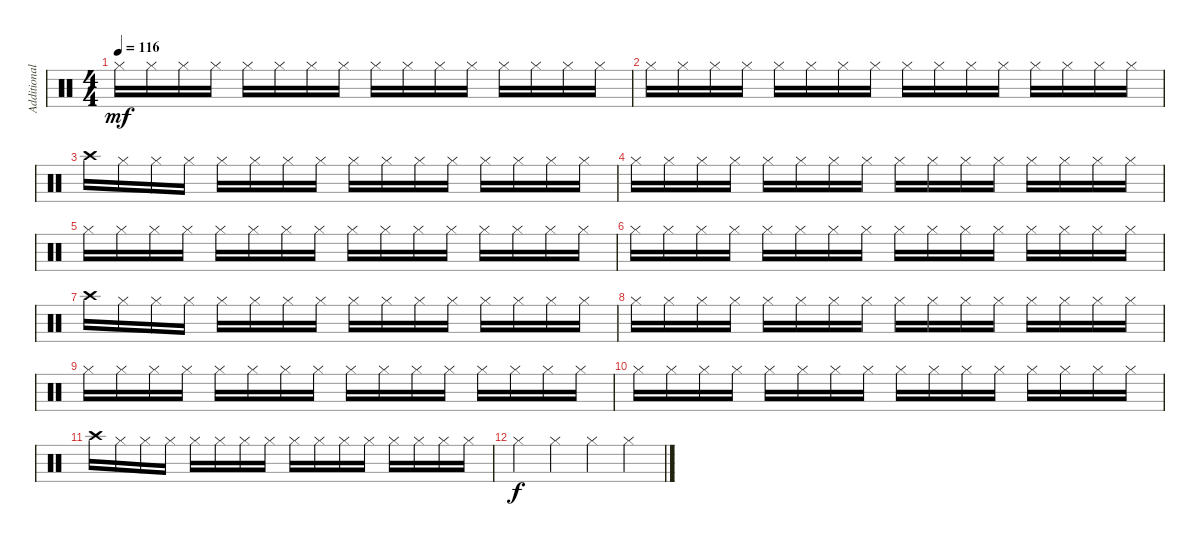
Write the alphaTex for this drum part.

\track ("Additional Drums" "Additional") {instrument percussion}
\staff {score}
\articulation defaults
\ts (4 4)
\tempo 116
\clef neutral
\ks c "Hi-Hat (closed)".16{dy mf} "Hi-Hat (closed)".16 "Hi-Hat (closed)".16 "Hi-Hat (closed)".16 "Hi-Hat (closed)".16 "Hi-Hat (closed)".16 "Hi-Hat (closed)".16 "Hi-Hat (closed)".16 "Hi-Hat (closed)".16 "Hi-Hat (closed)".16 "Hi-Hat (closed)".16 "Hi-Hat (closed)".16 "Hi-Hat (closed)".16 "Hi-Hat (closed)".16 "Hi-Hat (closed)".16 "Hi-Hat (closed)".16
|
"Hi-Hat (closed)".16 "Hi-Hat (closed)".16 "Hi-Hat (closed)".16 "Hi-Hat (closed)".16 "Hi-Hat (closed)".16 "Hi-Hat (closed)".16 "Hi-Hat (closed)".16 "Hi-Hat (closed)".16 "Hi-Hat (closed)".16 "Hi-Hat (closed)".16 "Hi-Hat (closed)".16 "Hi-Hat (closed)".16 "Hi-Hat (closed)".16 "Hi-Hat (closed)".16 "Hi-Hat (closed)".16 "Hi-Hat (closed)".16 |
"Crash high (hit)".16 "Hi-Hat (closed)".16 "Hi-Hat (closed)".16 "Hi-Hat (closed)".16 "Hi-Hat (closed)".16 "Hi-Hat (closed)".16 "Hi-Hat (closed)".16 "Hi-Hat (closed)".16 "Hi-Hat (closed)".16 "Hi-Hat (closed)".16 "Hi-Hat (closed)".16 "Hi-Hat (closed)".16 "Hi-Hat (closed)".16 "Hi-Hat (closed)".16 "Hi-Hat (closed)".16 "Hi-Hat (closed)".16 |
"Hi-Hat (closed)".16 "Hi-Hat (closed)".16 "Hi-Hat (closed)".16 "Hi-Hat (closed)".16 "Hi-Hat (closed)".16 "Hi-Hat (closed)".16 "Hi-Hat (closed)".16 "Hi-Hat (closed)".16 "Hi-Hat (closed)".16 "Hi-Hat (closed)".16 "Hi-Hat (closed)".16 "Hi-Hat (closed)".16 "Hi-Hat (closed)".16 "Hi-Hat (closed)".16 "Hi-Hat (closed)".16 "Hi-Hat (closed)".16 |
"Hi-Hat (closed)".16 "Hi-Hat (closed)".16 "Hi-Hat (closed)".16 "Hi-Hat (closed)".16 "Hi-Hat (closed)".16 "Hi-Hat (closed)".16 "Hi-Hat (closed)".16 "Hi-Hat (closed)".16 "Hi-Hat (closed)".16 "Hi-Hat (closed)".16 "Hi-Hat (closed)".16 "Hi-Hat (closed)".16 "Hi-Hat (closed)".16 "Hi-Hat (closed)".16 "Hi-Hat (closed)".16 "Hi-Hat (closed)".16 |
"Hi-Hat (closed)".16 "Hi-Hat (closed)".16 "Hi-Hat (closed)".16 "Hi-Hat (closed)".16 "Hi-Hat (closed)".16 "Hi-Hat (closed)".16 "Hi-Hat (closed)".16 "Hi-Hat (closed)".16 "Hi-Hat (closed)".16 "Hi-Hat (closed)".16 "Hi-Hat (closed)".16 "Hi-Hat (closed)".16 "Hi-Hat (closed)".16 "Hi-Hat (closed)".16 "Hi-Hat (closed)".16 "Hi-Hat (closed)".16 |
"Crash high (hit)".16 "Hi-Hat (closed)".16 "Hi-Hat (closed)".16 "Hi-Hat (closed)".16 "Hi-Hat (closed)".16 "Hi-Hat (closed)".16 "Hi-Hat (closed)".16 "Hi-Hat (closed)".16 "Hi-Hat (closed)".16 "Hi-Hat (closed)".16 "Hi-Hat (closed)".16 "Hi-Hat (closed)".16 "Hi-Hat (closed)".16 "Hi-Hat (closed)".16 "Hi-Hat (closed)".16 "Hi-Hat (closed)".16 |
"Hi-Hat (closed)".16 "Hi-Hat (closed)".16 "Hi-Hat (closed)".16 "Hi-Hat (closed)".16 "Hi-Hat (closed)".16 "Hi-Hat (closed)".16 "Hi-Hat (closed)".16 "Hi-Hat (closed)".16 "Hi-Hat (closed)".16 "Hi-Hat (closed)".16 "Hi-Hat (closed)".16 "Hi-Hat (closed)".16 "Hi-Hat (closed)".16 "Hi-Hat (closed)".16 "Hi-Hat (closed)".16 "Hi-Hat (closed)".16 |
"Hi-Hat (closed)".16 "Hi-Hat (closed)".16 "Hi-Hat (closed)".16 "Hi-Hat (closed)".16 "Hi-Hat (closed)".16 "Hi-Hat (closed)".16 "Hi-Hat (closed)".16 "Hi-Hat (closed)".16 "Hi-Hat (closed)".16 "Hi-Hat (closed)".16 "Hi-Hat (closed)".16 "Hi-Hat (closed)".16 "Hi-Hat (closed)".16 "Hi-Hat (closed)".16 "Hi-Hat (closed)".16 "Hi-Hat (closed)".16 |
"Hi-Hat (closed)".16 "Hi-Hat (closed)".16 "Hi-Hat (closed)".16 "Hi-Hat (closed)".16 "Hi-Hat (closed)".16 "Hi-Hat (closed)".16 "Hi-Hat (closed)".16 "Hi-Hat (closed)".16 "Hi-Hat (closed)".16 "Hi-Hat (closed)".16 "Hi-Hat (closed)".16 "Hi-Hat (closed)".16 "Hi-Hat (closed)".16 "Hi-Hat (closed)".16 "Hi-Hat (closed)".16 "Hi-Hat (closed)".16 |
"Crash high (hit)".16 "Hi-Hat (closed)".16 "Hi-Hat (closed)".16 "Hi-Hat (closed)".16 "Hi-Hat (closed)".16 "Hi-Hat (closed)".16 "Hi-Hat (closed)".16 "Hi-Hat (closed)".16 "Hi-Hat (closed)".16 "Hi-Hat (closed)".16 "Hi-Hat (closed)".16 "Hi-Hat (closed)".16 "Hi-Hat (closed)".16 "Hi-Hat (closed)".16 "Hi-Hat (closed)".16 "Hi-Hat (closed)".16 |
"Hi-Hat (closed)".4{dy f} "Hi-Hat (closed)".4 "Hi-Hat (closed)".4 "Hi-Hat (closed)".4
